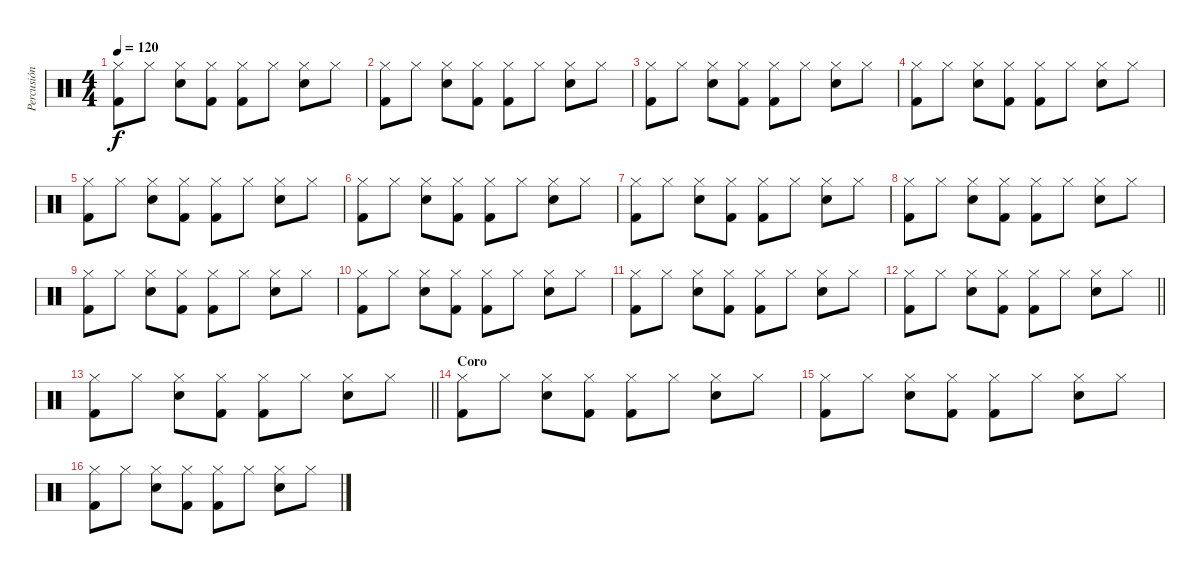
\track ("Percusión" "Percusión") {instrument percussion}
\staff {score}
\articulation defaults
\ts (4 4)
\tempo 120
\clef neutral
\ks c
("Hi-Hat (closed)" "Kick (hit) 2").8{dy f} "Hi-Hat (closed)".8 ("Hi-Hat (closed)" "Snare (hit) 2").8 ("Hi-Hat (closed)" "Kick (hit) 2").8 ("Hi-Hat (closed)" "Kick (hit) 2").8 "Hi-Hat (closed)".8 ("Hi-Hat (closed)" "Snare (hit) 2").8 "Hi-Hat (closed)".8 |
("Hi-Hat (closed)" "Kick (hit) 2").8 "Hi-Hat (closed)".8 ("Hi-Hat (closed)" "Snare (hit) 2").8 ("Hi-Hat (closed)" "Kick (hit) 2").8 ("Hi-Hat (closed)" "Kick (hit) 2").8 "Hi-Hat (closed)".8 ("Hi-Hat (closed)" "Snare (hit) 2").8 "Hi-Hat (closed)".8 |
("Hi-Hat (closed)" "Kick (hit) 2").8 "Hi-Hat (closed)".8 ("Hi-Hat (closed)" "Snare (hit) 2").8 ("Hi-Hat (closed)" "Kick (hit) 2").8 ("Hi-Hat (closed)" "Kick (hit) 2").8 "Hi-Hat (closed)".8 ("Hi-Hat (closed)" "Snare (hit) 2").8 "Hi-Hat (closed)".8 |
("Hi-Hat (closed)" "Kick (hit) 2").8 "Hi-Hat (closed)".8 ("Hi-Hat (closed)" "Snare (hit) 2").8 ("Hi-Hat (closed)" "Kick (hit) 2").8 ("Hi-Hat (closed)" "Kick (hit) 2").8 "Hi-Hat (closed)".8 ("Hi-Hat (closed)" "Snare (hit) 2").8 "Hi-Hat (closed)".8 |
("Hi-Hat (closed)" "Kick (hit) 2").8 "Hi-Hat (closed)".8 ("Hi-Hat (closed)" "Snare (hit) 2").8 ("Hi-Hat (closed)" "Kick (hit) 2").8 ("Hi-Hat (closed)" "Kick (hit) 2").8 "Hi-Hat (closed)".8 ("Hi-Hat (closed)" "Snare (hit) 2").8 "Hi-Hat (closed)".8 |
("Hi-Hat (closed)" "Kick (hit) 2").8 "Hi-Hat (closed)".8 ("Hi-Hat (closed)" "Snare (hit) 2").8 ("Hi-Hat (closed)" "Kick (hit) 2").8 ("Hi-Hat (closed)" "Kick (hit) 2").8 "Hi-Hat (closed)".8 ("Hi-Hat (closed)" "Snare (hit) 2").8 "Hi-Hat (closed)".8 |
("Hi-Hat (closed)" "Kick (hit) 2").8 "Hi-Hat (closed)".8 ("Hi-Hat (closed)" "Snare (hit) 2").8 ("Hi-Hat (closed)" "Kick (hit) 2").8 ("Hi-Hat (closed)" "Kick (hit) 2").8 "Hi-Hat (closed)".8 ("Hi-Hat (closed)" "Snare (hit) 2").8 "Hi-Hat (closed)".8 |
("Hi-Hat (closed)" "Kick (hit) 2").8 "Hi-Hat (closed)".8 ("Hi-Hat (closed)" "Snare (hit) 2").8 ("Hi-Hat (closed)" "Kick (hit) 2").8 ("Hi-Hat (closed)" "Kick (hit) 2").8 "Hi-Hat (closed)".8 ("Hi-Hat (closed)" "Snare (hit) 2").8 "Hi-Hat (closed)".8 |
("Hi-Hat (closed)" "Kick (hit) 2").8 "Hi-Hat (closed)".8 ("Hi-Hat (closed)" "Snare (hit) 2").8 ("Hi-Hat (closed)" "Kick (hit) 2").8 ("Hi-Hat (closed)" "Kick (hit) 2").8 "Hi-Hat (closed)".8 ("Hi-Hat (closed)" "Snare (hit) 2").8 "Hi-Hat (closed)".8 |
("Hi-Hat (closed)" "Kick (hit) 2").8 "Hi-Hat (closed)".8 ("Hi-Hat (closed)" "Snare (hit) 2").8 ("Hi-Hat (closed)" "Kick (hit) 2").8 ("Hi-Hat (closed)" "Kick (hit) 2").8 "Hi-Hat (closed)".8 ("Hi-Hat (closed)" "Snare (hit) 2").8 "Hi-Hat (closed)".8 |
("Hi-Hat (closed)" "Kick (hit) 2").8 "Hi-Hat (closed)".8 ("Hi-Hat (closed)" "Snare (hit) 2").8 ("Hi-Hat (closed)" "Kick (hit) 2").8 ("Hi-Hat (closed)" "Kick (hit) 2").8 "Hi-Hat (closed)".8 ("Hi-Hat (closed)" "Snare (hit) 2").8 "Hi-Hat (closed)".8 |
\barLineRight lightlight
("Hi-Hat (closed)" "Kick (hit) 2").8 "Hi-Hat (closed)".8 ("Hi-Hat (closed)" "Snare (hit) 2").8 ("Hi-Hat (closed)" "Kick (hit) 2").8 ("Hi-Hat (closed)" "Kick (hit) 2").8 "Hi-Hat (closed)".8 ("Hi-Hat (closed)" "Snare (hit) 2").8 "Hi-Hat (closed)".8 |
\barLineRight lightlight
("Hi-Hat (closed)" "Kick (hit) 2").8 "Hi-Hat (closed)".8 ("Hi-Hat (closed)" "Snare (hit) 2").8 ("Hi-Hat (closed)" "Kick (hit) 2").8 ("Hi-Hat (closed)" "Kick (hit) 2").8 "Hi-Hat (closed)".8 ("Hi-Hat (closed)" "Snare (hit) 2").8 "Hi-Hat (closed)".8 |
\section ("" "Coro")
("Hi-Hat (closed)" "Kick (hit) 2").8 "Hi-Hat (closed)".8 ("Hi-Hat (closed)" "Snare (hit) 2").8 ("Hi-Hat (closed)" "Kick (hit) 2").8 ("Hi-Hat (closed)" "Kick (hit) 2").8 "Hi-Hat (closed)".8 ("Hi-Hat (closed)" "Snare (hit) 2").8 "Hi-Hat (closed)".8 |
("Hi-Hat (closed)" "Kick (hit) 2").8 "Hi-Hat (closed)".8 ("Hi-Hat (closed)" "Snare (hit) 2").8 ("Hi-Hat (closed)" "Kick (hit) 2").8 ("Hi-Hat (closed)" "Kick (hit) 2").8 "Hi-Hat (closed)".8 ("Hi-Hat (closed)" "Snare (hit) 2").8 "Hi-Hat (closed)".8 |
("Hi-Hat (closed)" "Kick (hit) 2").8 "Hi-Hat (closed)".8 ("Hi-Hat (closed)" "Snare (hit) 2").8 ("Hi-Hat (closed)" "Kick (hit) 2").8 ("Hi-Hat (closed)" "Kick (hit) 2").8 "Hi-Hat (closed)".8 ("Hi-Hat (closed)" "Snare (hit) 2").8 "Hi-Hat (closed)".8
